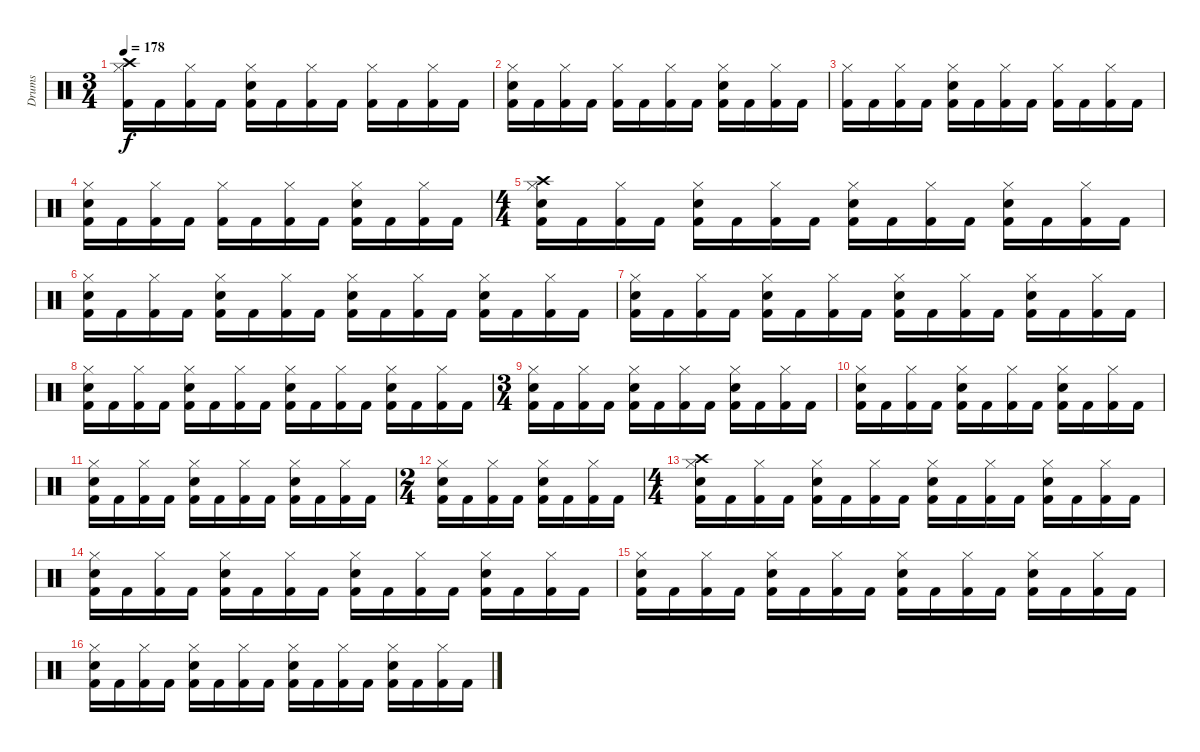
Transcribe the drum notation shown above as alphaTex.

\track ("Drums" "Drums") {instrument percussion}
\staff {score}
\articulation defaults
\ts (3 4)
\tempo 178
\clef neutral
\ks c
("Kick (hit) 2" "Hi-Hat (closed)" "Crash high (hit)").16{dy f} "Kick (hit) 2".16 ("Kick (hit) 2" "Hi-Hat (closed)").16 "Kick (hit) 2".16 ("Kick (hit) 2" "Snare (hit) 2" "Hi-Hat (closed)").16 "Kick (hit) 2".16 ("Kick (hit) 2" "Hi-Hat (closed)").16 "Kick (hit) 2".16 ("Kick (hit) 2" "Hi-Hat (closed)").16 "Kick (hit) 2".16 ("Kick (hit) 2" "Hi-Hat (closed)").16 "Kick (hit) 2".16 |
("Kick (hit) 2" "Snare (hit) 2" "Hi-Hat (closed)").16 "Kick (hit) 2".16 ("Kick (hit) 2" "Hi-Hat (closed)").16 "Kick (hit) 2".16 ("Kick (hit) 2" "Hi-Hat (closed)").16 "Kick (hit) 2".16 ("Kick (hit) 2" "Hi-Hat (closed)").16 "Kick (hit) 2".16 ("Kick (hit) 2" "Snare (hit) 2" "Hi-Hat (closed)").16 "Kick (hit) 2".16 ("Kick (hit) 2" "Hi-Hat (closed)").16 "Kick (hit) 2".16 |
("Kick (hit) 2" "Hi-Hat (closed)").16 "Kick (hit) 2".16 ("Kick (hit) 2" "Hi-Hat (closed)").16 "Kick (hit) 2".16 ("Kick (hit) 2" "Snare (hit) 2" "Hi-Hat (closed)").16 "Kick (hit) 2".16 ("Kick (hit) 2" "Hi-Hat (closed)").16 "Kick (hit) 2".16 ("Kick (hit) 2" "Hi-Hat (closed)").16 "Kick (hit) 2".16 ("Kick (hit) 2" "Hi-Hat (closed)").16 "Kick (hit) 2".16 |
("Kick (hit) 2" "Snare (hit) 2" "Hi-Hat (closed)").16 "Kick (hit) 2".16 ("Kick (hit) 2" "Hi-Hat (closed)").16 "Kick (hit) 2".16 ("Kick (hit) 2" "Hi-Hat (closed)").16 "Kick (hit) 2".16 ("Kick (hit) 2" "Hi-Hat (closed)").16 "Kick (hit) 2".16 ("Kick (hit) 2" "Snare (hit) 2" "Hi-Hat (closed)").16 "Kick (hit) 2".16 ("Kick (hit) 2" "Hi-Hat (closed)").16 "Kick (hit) 2".16 |
\ts (4 4)
("Kick (hit) 2" "Snare (hit) 2" "Hi-Hat (closed)" "Crash high (hit)").16 "Kick (hit) 2".16 ("Kick (hit) 2" "Hi-Hat (closed)").16 "Kick (hit) 2".16 ("Kick (hit) 2" "Snare (hit) 2" "Hi-Hat (closed)").16 "Kick (hit) 2".16 ("Kick (hit) 2" "Hi-Hat (closed)").16 "Kick (hit) 2".16 ("Kick (hit) 2" "Snare (hit) 2" "Hi-Hat (closed)").16 "Kick (hit) 2".16 ("Kick (hit) 2" "Hi-Hat (closed)").16 "Kick (hit) 2".16 ("Kick (hit) 2" "Snare (hit) 2" "Hi-Hat (closed)").16 "Kick (hit) 2".16 ("Kick (hit) 2" "Hi-Hat (closed)").16 "Kick (hit) 2".16 |
("Kick (hit) 2" "Snare (hit) 2" "Hi-Hat (closed)").16 "Kick (hit) 2".16 ("Kick (hit) 2" "Hi-Hat (closed)").16 "Kick (hit) 2".16 ("Kick (hit) 2" "Snare (hit) 2" "Hi-Hat (closed)").16 "Kick (hit) 2".16 ("Kick (hit) 2" "Hi-Hat (closed)").16 "Kick (hit) 2".16 ("Kick (hit) 2" "Snare (hit) 2" "Hi-Hat (closed)").16 "Kick (hit) 2".16 ("Kick (hit) 2" "Hi-Hat (closed)").16 "Kick (hit) 2".16 ("Kick (hit) 2" "Snare (hit) 2" "Hi-Hat (closed)").16 "Kick (hit) 2".16 ("Kick (hit) 2" "Hi-Hat (closed)").16 "Kick (hit) 2".16 |
("Kick (hit) 2" "Snare (hit) 2" "Hi-Hat (closed)").16 "Kick (hit) 2".16 ("Kick (hit) 2" "Hi-Hat (closed)").16 "Kick (hit) 2".16 ("Kick (hit) 2" "Snare (hit) 2" "Hi-Hat (closed)").16 "Kick (hit) 2".16 ("Kick (hit) 2" "Hi-Hat (closed)").16 "Kick (hit) 2".16 ("Kick (hit) 2" "Snare (hit) 2" "Hi-Hat (closed)").16 "Kick (hit) 2".16 ("Kick (hit) 2" "Hi-Hat (closed)").16 "Kick (hit) 2".16 ("Kick (hit) 2" "Snare (hit) 2" "Hi-Hat (closed)").16 "Kick (hit) 2".16 ("Kick (hit) 2" "Hi-Hat (closed)").16 "Kick (hit) 2".16 |
("Kick (hit) 2" "Snare (hit) 2" "Hi-Hat (closed)").16 "Kick (hit) 2".16 ("Kick (hit) 2" "Hi-Hat (closed)").16 "Kick (hit) 2".16 ("Kick (hit) 2" "Snare (hit) 2" "Hi-Hat (closed)").16 "Kick (hit) 2".16 ("Kick (hit) 2" "Hi-Hat (closed)").16 "Kick (hit) 2".16 ("Kick (hit) 2" "Snare (hit) 2" "Hi-Hat (closed)").16 "Kick (hit) 2".16 ("Kick (hit) 2" "Hi-Hat (closed)").16 "Kick (hit) 2".16 ("Kick (hit) 2" "Snare (hit) 2" "Hi-Hat (closed)").16 "Kick (hit) 2".16 ("Kick (hit) 2" "Hi-Hat (closed)").16 "Kick (hit) 2".16 |
\ts (3 4)
("Kick (hit) 2" "Snare (hit) 2" "Hi-Hat (closed)").16 "Kick (hit) 2".16 ("Kick (hit) 2" "Hi-Hat (closed)").16 "Kick (hit) 2".16 ("Kick (hit) 2" "Snare (hit) 2" "Hi-Hat (closed)").16 "Kick (hit) 2".16 ("Kick (hit) 2" "Hi-Hat (closed)").16 "Kick (hit) 2".16 ("Kick (hit) 2" "Snare (hit) 2" "Hi-Hat (closed)").16 "Kick (hit) 2".16 ("Kick (hit) 2" "Hi-Hat (closed)").16 "Kick (hit) 2".16 |
("Kick (hit) 2" "Snare (hit) 2" "Hi-Hat (closed)").16 "Kick (hit) 2".16 ("Kick (hit) 2" "Hi-Hat (closed)").16 "Kick (hit) 2".16 ("Kick (hit) 2" "Snare (hit) 2" "Hi-Hat (closed)").16 "Kick (hit) 2".16 ("Kick (hit) 2" "Hi-Hat (closed)").16 "Kick (hit) 2".16 ("Kick (hit) 2" "Snare (hit) 2" "Hi-Hat (closed)").16 "Kick (hit) 2".16 ("Kick (hit) 2" "Hi-Hat (closed)").16 "Kick (hit) 2".16 |
("Kick (hit) 2" "Snare (hit) 2" "Hi-Hat (closed)").16 "Kick (hit) 2".16 ("Kick (hit) 2" "Hi-Hat (closed)").16 "Kick (hit) 2".16 ("Kick (hit) 2" "Snare (hit) 2" "Hi-Hat (closed)").16 "Kick (hit) 2".16 ("Kick (hit) 2" "Hi-Hat (closed)").16 "Kick (hit) 2".16 ("Kick (hit) 2" "Snare (hit) 2" "Hi-Hat (closed)").16 "Kick (hit) 2".16 ("Kick (hit) 2" "Hi-Hat (closed)").16 "Kick (hit) 2".16 |
\ts (2 4)
("Kick (hit) 2" "Snare (hit) 2" "Hi-Hat (closed)").16 "Kick (hit) 2".16 ("Kick (hit) 2" "Hi-Hat (closed)").16 "Kick (hit) 2".16 ("Kick (hit) 2" "Snare (hit) 2" "Hi-Hat (closed)").16 "Kick (hit) 2".16 ("Kick (hit) 2" "Hi-Hat (closed)").16 "Kick (hit) 2".16 |
\ts (4 4)
("Kick (hit) 2" "Snare (hit) 2" "Hi-Hat (closed)" "Crash high (hit)").16 "Kick (hit) 2".16 ("Kick (hit) 2" "Hi-Hat (closed)").16 "Kick (hit) 2".16 ("Kick (hit) 2" "Snare (hit) 2" "Hi-Hat (closed)").16 "Kick (hit) 2".16 ("Kick (hit) 2" "Hi-Hat (closed)").16 "Kick (hit) 2".16 ("Kick (hit) 2" "Snare (hit) 2" "Hi-Hat (closed)").16 "Kick (hit) 2".16 ("Kick (hit) 2" "Hi-Hat (closed)").16 "Kick (hit) 2".16 ("Kick (hit) 2" "Snare (hit) 2" "Hi-Hat (closed)").16 "Kick (hit) 2".16 ("Kick (hit) 2" "Hi-Hat (closed)").16 "Kick (hit) 2".16 |
("Kick (hit) 2" "Snare (hit) 2" "Hi-Hat (closed)").16 "Kick (hit) 2".16 ("Kick (hit) 2" "Hi-Hat (closed)").16 "Kick (hit) 2".16 ("Kick (hit) 2" "Snare (hit) 2" "Hi-Hat (closed)").16 "Kick (hit) 2".16 ("Kick (hit) 2" "Hi-Hat (closed)").16 "Kick (hit) 2".16 ("Kick (hit) 2" "Snare (hit) 2" "Hi-Hat (closed)").16 "Kick (hit) 2".16 ("Kick (hit) 2" "Hi-Hat (closed)").16 "Kick (hit) 2".16 ("Kick (hit) 2" "Snare (hit) 2" "Hi-Hat (closed)").16 "Kick (hit) 2".16 ("Kick (hit) 2" "Hi-Hat (closed)").16 "Kick (hit) 2".16 |
("Kick (hit) 2" "Snare (hit) 2" "Hi-Hat (closed)").16 "Kick (hit) 2".16 ("Kick (hit) 2" "Hi-Hat (closed)").16 "Kick (hit) 2".16 ("Kick (hit) 2" "Snare (hit) 2" "Hi-Hat (closed)").16 "Kick (hit) 2".16 ("Kick (hit) 2" "Hi-Hat (closed)").16 "Kick (hit) 2".16 ("Kick (hit) 2" "Snare (hit) 2" "Hi-Hat (closed)").16 "Kick (hit) 2".16 ("Kick (hit) 2" "Hi-Hat (closed)").16 "Kick (hit) 2".16 ("Kick (hit) 2" "Snare (hit) 2" "Hi-Hat (closed)").16 "Kick (hit) 2".16 ("Kick (hit) 2" "Hi-Hat (closed)").16 "Kick (hit) 2".16 |
("Kick (hit) 2" "Snare (hit) 2" "Hi-Hat (closed)").16 "Kick (hit) 2".16 ("Kick (hit) 2" "Hi-Hat (closed)").16 "Kick (hit) 2".16 ("Kick (hit) 2" "Snare (hit) 2" "Hi-Hat (closed)").16 "Kick (hit) 2".16 ("Kick (hit) 2" "Hi-Hat (closed)").16 "Kick (hit) 2".16 ("Kick (hit) 2" "Snare (hit) 2" "Hi-Hat (closed)").16 "Kick (hit) 2".16 ("Kick (hit) 2" "Hi-Hat (closed)").16 "Kick (hit) 2".16 ("Kick (hit) 2" "Snare (hit) 2" "Hi-Hat (closed)").16 "Kick (hit) 2".16 ("Kick (hit) 2" "Hi-Hat (closed)").16 "Kick (hit) 2".16
